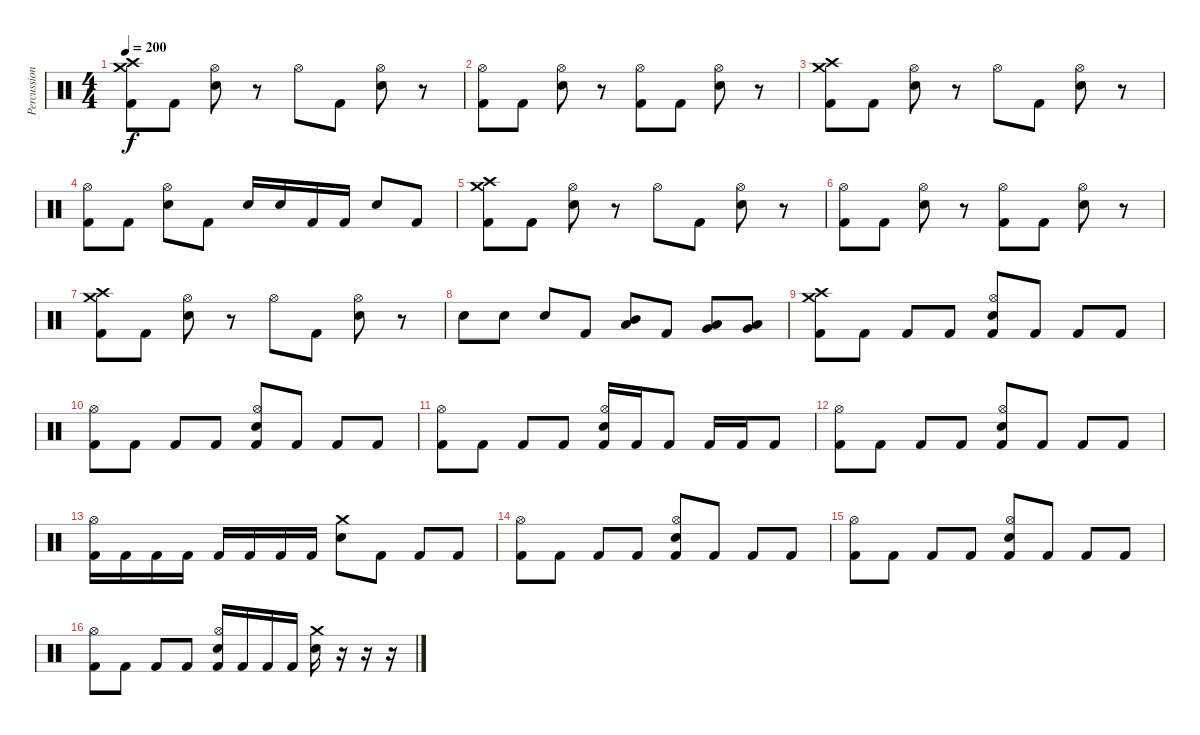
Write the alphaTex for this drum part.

\track ("Percussion" "Percussion") {instrument percussion}
\staff {score}
\articulation defaults
\ts (4 4)
\tempo 200
\clef neutral
\ks c
("Crash high (hit)" "Crash medium (hit)" "Kick (hit) 2").8{dy f} "Kick (hit) 2".8 ("Hi-Hat (open)" "Snare (hit) 2").8 r.8 "Hi-Hat (open)".8 "Kick (hit) 2".8 ("Hi-Hat (open)" "Snare (hit) 2").8 r.8 |
("Hi-Hat (open)" "Kick (hit) 2").8 "Kick (hit) 2".8 ("Hi-Hat (open)" "Snare (hit) 2").8 r.8 ("Hi-Hat (open)" "Kick (hit) 2").8 "Kick (hit) 2".8 ("Hi-Hat (open)" "Snare (hit) 2").8 r.8 |
("Crash high (hit)" "Crash medium (hit)" "Kick (hit) 2").8 "Kick (hit) 2".8 ("Hi-Hat (open)" "Snare (hit) 2").8 r.8 "Hi-Hat (open)".8 "Kick (hit) 2".8 ("Hi-Hat (open)" "Snare (hit) 2").8 r.8 |
("Hi-Hat (open)" "Kick (hit) 2").8 "Kick (hit) 2".8 ("Hi-Hat (open)" "Snare (hit) 2").8 "Kick (hit) 2".8 "Snare (hit) 2".16 "Snare (hit) 2".16 "Kick (hit) 2".16 "Kick (hit) 2".16 "Snare (hit) 2".8 "Kick (hit) 2".8 |
("Crash high (hit)" "Crash medium (hit)" "Kick (hit) 2").8 "Kick (hit) 2".8 ("Hi-Hat (open)" "Snare (hit) 2").8 r.8 "Hi-Hat (open)".8 "Kick (hit) 2".8 ("Hi-Hat (open)" "Snare (hit) 2").8 r.8 |
("Hi-Hat (open)" "Kick (hit) 2").8 "Kick (hit) 2".8 ("Hi-Hat (open)" "Snare (hit) 2").8 r.8 ("Hi-Hat (open)" "Kick (hit) 2").8 "Kick (hit) 2".8 ("Hi-Hat (open)" "Snare (hit) 2").8 r.8 |
("Crash high (hit)" "Crash medium (hit)" "Kick (hit) 2").8 "Kick (hit) 2".8 ("Hi-Hat (open)" "Snare (hit) 2").8 r.8 "Hi-Hat (open)".8 "Kick (hit) 2".8 ("Hi-Hat (open)" "Snare (hit) 2").8 r.8 |
"Snare (hit) 2".8 "Snare (hit) 2".8 "Snare (hit) 2".8 "Kick (hit) 2".8 ("Mid Tom (hit)" "Low Tom (hit)").8 "Kick (hit) 2".8 ("Very Low Tom (hit)" "Low Tom (hit)").8 ("Very Low Tom (hit)" "Low Tom (hit)").8 |
("Crash high (hit)" "Crash medium (hit)" "Kick (hit) 2").8 "Kick (hit) 2".8 "Kick (hit) 2".8 "Kick (hit) 2".8 ("Hi-Hat (open)" "Snare (hit) 2" "Kick (hit) 2").8 "Kick (hit) 2".8 "Kick (hit) 2".8 "Kick (hit) 2".8 |
("Hi-Hat (open)" "Kick (hit) 2").8 "Kick (hit) 2".8 "Kick (hit) 2".8 "Kick (hit) 2".8 ("Hi-Hat (open)" "Snare (hit) 2" "Kick (hit) 2").8 "Kick (hit) 2".8 "Kick (hit) 2".8 "Kick (hit) 2".8 |
("Hi-Hat (open)" "Kick (hit) 2").8 "Kick (hit) 2".8 "Kick (hit) 2".8 "Kick (hit) 2".8 ("Hi-Hat (open)" "Snare (hit) 2" "Kick (hit) 2").16 "Kick (hit) 2".16 "Kick (hit) 2".8 "Kick (hit) 2".16 "Kick (hit) 2".16 "Kick (hit) 2".8 |
("Hi-Hat (open)" "Kick (hit) 2").8 "Kick (hit) 2".8 "Kick (hit) 2".8 "Kick (hit) 2".8 ("Hi-Hat (open)" "Snare (hit) 2" "Kick (hit) 2").8 "Kick (hit) 2".8 "Kick (hit) 2".8 "Kick (hit) 2".8 |
("Hi-Hat (open)" "Kick (hit) 2").16 "Kick (hit) 2".16 "Kick (hit) 2".16 "Kick (hit) 2".16 "Kick (hit) 2".16 "Kick (hit) 2".16 "Kick (hit) 2".16 "Kick (hit) 2".16 ("Crash medium (hit)" "Snare (hit) 2").8 "Kick (hit) 2".8 "Kick (hit) 2".8 "Kick (hit) 2".8 |
("Hi-Hat (open)" "Kick (hit) 2").8 "Kick (hit) 2".8 "Kick (hit) 2".8 "Kick (hit) 2".8 ("Hi-Hat (open)" "Snare (hit) 2" "Kick (hit) 2").8 "Kick (hit) 2".8 "Kick (hit) 2".8 "Kick (hit) 2".8 |
("Hi-Hat (open)" "Kick (hit) 2").8 "Kick (hit) 2".8 "Kick (hit) 2".8 "Kick (hit) 2".8 ("Hi-Hat (open)" "Snare (hit) 2" "Kick (hit) 2").8 "Kick (hit) 2".8 "Kick (hit) 2".8 "Kick (hit) 2".8 |
("Hi-Hat (open)" "Kick (hit) 2").8 "Kick (hit) 2".8 "Kick (hit) 2".8 "Kick (hit) 2".8 ("Hi-Hat (open)" "Snare (hit) 2" "Kick (hit) 2").16 "Kick (hit) 2".16 "Kick (hit) 2".16 "Kick (hit) 2".16 ("Crash medium (hit)" "Snare (hit) 2").16 r.16 r.16 r.16
